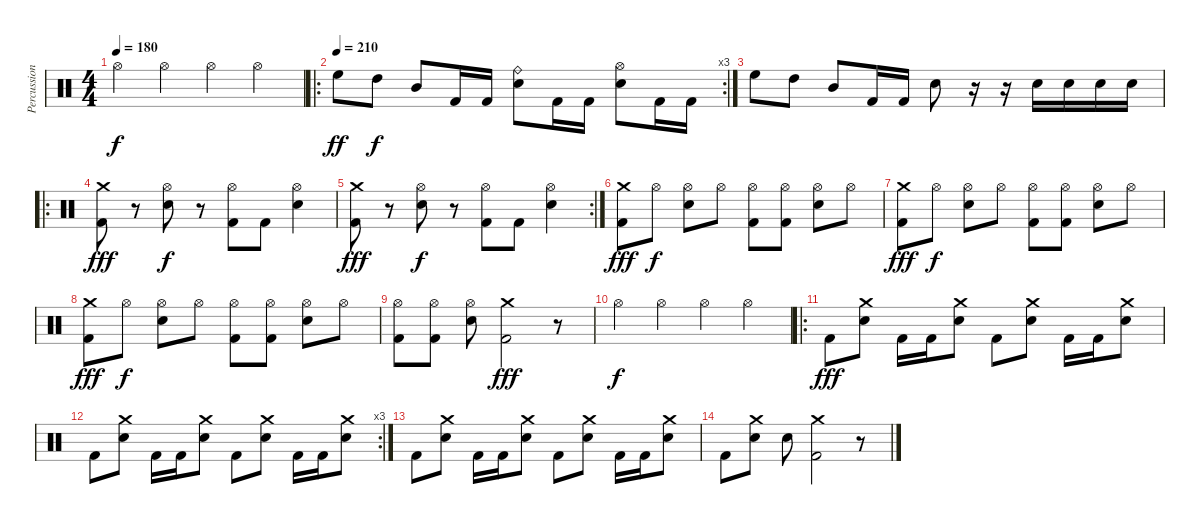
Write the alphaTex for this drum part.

\track ("Percussions" "Percussion") {instrument percussion}
\staff {score}
\articulation defaults
\ts (4 4)
\tempo 180
\clef neutral
\ks c "Hi-Hat (open)".4{dy f} "Hi-Hat (open)".4 "Hi-Hat (open)".4 "Hi-Hat (open)".4
|
\ro
\rc 3
\tempo (210)
"High Floor Tom (hit)".8{dy ff} "High Tom (hit)".8{dy f} "Mid Tom (hit)".8 "Kick (hit) 2".16 "Kick (hit) 2".16 ("Snare (hit) 2" "Ride (bell)").8 "Kick (hit) 2".16 "Kick (hit) 2".16 ("Snare (hit) 2" "Hi-Hat (open)").8 "Kick (hit) 2".16 "Kick (hit) 2".16 |
"High Floor Tom (hit)".8 "High Tom (hit)".8 "Mid Tom (hit)".8 "Kick (hit) 2".16 "Kick (hit) 2".16 "Snare (hit) 2".8 r.16 r.16 "Snare (hit) 2".16 "Snare (hit) 2".16 "Snare (hit) 2".16 "Snare (hit) 2".16 |
\ro
("Crash medium (hit)" "Kick (hit) 2").8{dy fff} r.8 ("Hi-Hat (open)" "Snare (hit) 2").8{dy f} r.8 ("Hi-Hat (open)" "Kick (hit) 2").8 "Kick (hit) 2".8 ("Hi-Hat (open)" "Snare (hit) 2").4 |
\rc 2
("Crash medium (hit)" "Kick (hit) 2").8{dy fff} r.8 ("Hi-Hat (open)" "Snare (hit) 2").8{dy f} r.8 ("Hi-Hat (open)" "Kick (hit) 2").8 "Kick (hit) 2".8 ("Hi-Hat (open)" "Snare (hit) 2").4 |
("Crash medium (hit)" "Kick (hit) 2").8{dy fff} "Hi-Hat (open)".8{dy f} ("Hi-Hat (open)" "Snare (hit) 2").8 "Hi-Hat (open)".8 ("Hi-Hat (open)" "Kick (hit) 2").8 ("Hi-Hat (open)" "Kick (hit) 2").8 ("Hi-Hat (open)" "Snare (hit) 2").8 "Hi-Hat (open)".8 |
("Crash medium (hit)" "Kick (hit) 2").8{dy fff} "Hi-Hat (open)".8{dy f} ("Hi-Hat (open)" "Snare (hit) 2").8 "Hi-Hat (open)".8 ("Hi-Hat (open)" "Kick (hit) 2").8 ("Hi-Hat (open)" "Kick (hit) 2").8 ("Hi-Hat (open)" "Snare (hit) 2").8 "Hi-Hat (open)".8 |
("Crash medium (hit)" "Kick (hit) 2").8{dy fff} "Hi-Hat (open)".8{dy f} ("Hi-Hat (open)" "Snare (hit) 2").8 "Hi-Hat (open)".8 ("Hi-Hat (open)" "Kick (hit) 2").8 ("Hi-Hat (open)" "Kick (hit) 2").8 ("Hi-Hat (open)" "Snare (hit) 2").8 "Hi-Hat (open)".8 |
("Hi-Hat (open)" "Kick (hit) 2").8 ("Hi-Hat (open)" "Kick (hit) 2").8 ("Hi-Hat (open)" "Snare (hit) 2").8 ("Crash medium (hit)" "Kick (hit) 2").2{dy fff} r.8 |
"Hi-Hat (open)".4{dy f} "Hi-Hat (open)".4 "Hi-Hat (open)".4 "Hi-Hat (open)".4 |
\ro "Kick (hit) 2".8{dy fff}
("Crash medium (hit)" "Snare (hit) 2").8 "Kick (hit) 2".16 "Kick (hit) 2".16 ("Crash medium (hit)" "Snare (hit) 2").8 "Kick (hit) 2".8 ("Crash medium (hit)" "Snare (hit) 2").8 "Kick (hit) 2".16 "Kick (hit) 2".16 ("Crash medium (hit)" "Snare (hit) 2").8 |
\rc 3 "Kick (hit) 2".8
("Crash medium (hit)" "Snare (hit) 2").8 "Kick (hit) 2".16 "Kick (hit) 2".16 ("Crash medium (hit)" "Snare (hit) 2").8 "Kick (hit) 2".8 ("Crash medium (hit)" "Snare (hit) 2").8 "Kick (hit) 2".16 "Kick (hit) 2".16 ("Crash medium (hit)" "Snare (hit) 2").8 |
"Kick (hit) 2".8 ("Crash medium (hit)" "Snare (hit) 2").8 "Kick (hit) 2".16 "Kick (hit) 2".16 ("Crash medium (hit)" "Snare (hit) 2").8 "Kick (hit) 2".8 ("Crash medium (hit)" "Snare (hit) 2").8 "Kick (hit) 2".16 "Kick (hit) 2".16 ("Crash medium (hit)" "Snare (hit) 2").8 |
"Kick (hit) 2".8 ("Crash medium (hit)" "Snare (hit) 2").8 "Snare (hit) 2".8 ("Crash medium (hit)" "Kick (hit) 2").2 r.8
